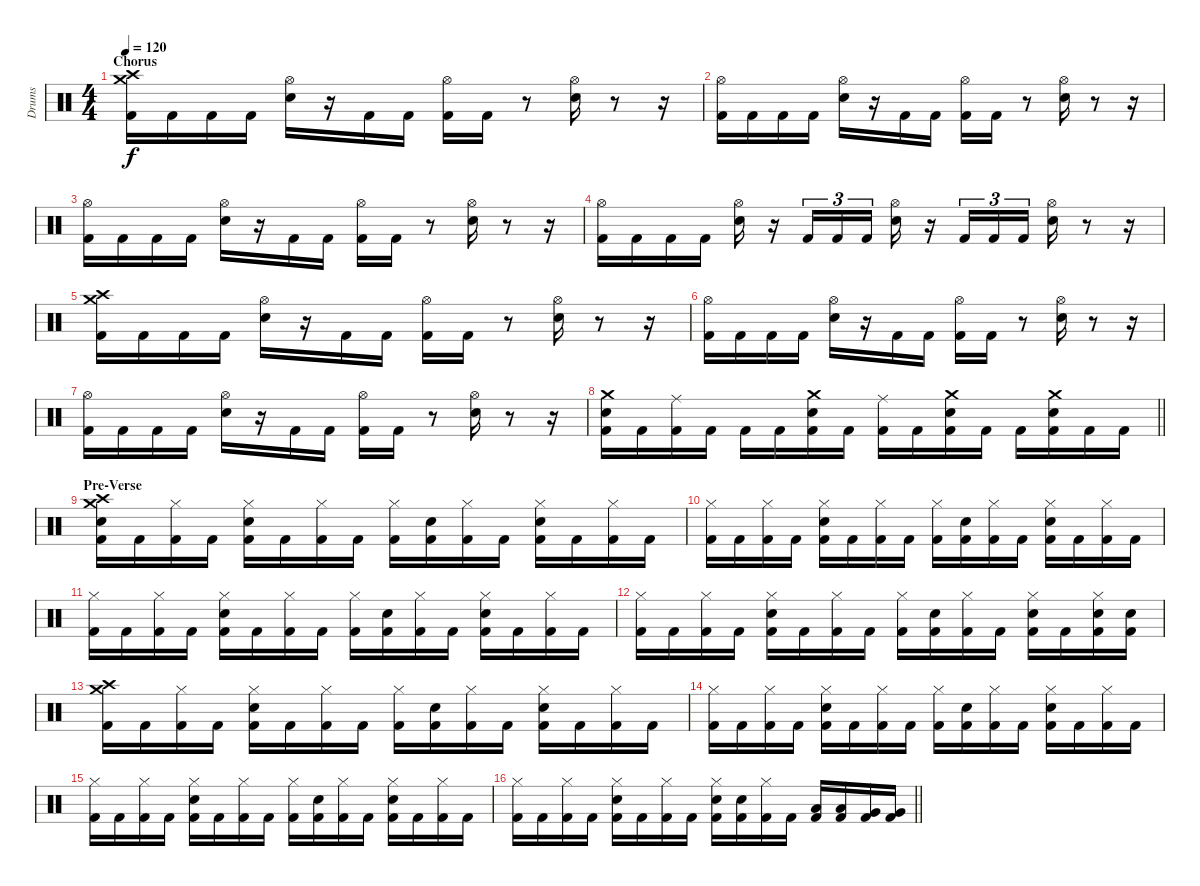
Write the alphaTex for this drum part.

\track ("Drums" "Drums") {instrument percussion}
\staff {score}
\articulation defaults
\ts (4 4)
\section ("" "Chorus")
\tempo 120
\clef neutral
\ks c
("Crash medium (hit)" "Crash high (hit)" "Kick (hit) 2").16{dy f} "Kick (hit) 2".16 "Kick (hit) 2".16 "Kick (hit) 2".16 ("Hi-Hat (open)" "Electric Snare (hit)").16 r.16 "Kick (hit) 2".16 "Kick (hit) 2".16 ("Hi-Hat (open)" "Kick (hit) 2").16 "Kick (hit) 2".16 r.8 ("Hi-Hat (open)" "Electric Snare (hit)").16 r.8 r.16 |
("Hi-Hat (open)" "Kick (hit) 2").16 "Kick (hit) 2".16 "Kick (hit) 2".16 "Kick (hit) 2".16 ("Hi-Hat (open)" "Electric Snare (hit)").16 r.16 "Kick (hit) 2".16 "Kick (hit) 2".16 ("Hi-Hat (open)" "Kick (hit) 2").16 "Kick (hit) 2".16 r.8 ("Hi-Hat (open)" "Electric Snare (hit)").16 r.8 r.16 |
("Hi-Hat (open)" "Kick (hit) 2").16 "Kick (hit) 2".16 "Kick (hit) 2".16 "Kick (hit) 2".16 ("Hi-Hat (open)" "Electric Snare (hit)").16 r.16 "Kick (hit) 2".16 "Kick (hit) 2".16 ("Hi-Hat (open)" "Kick (hit) 2").16 "Kick (hit) 2".16 r.8 ("Hi-Hat (open)" "Electric Snare (hit)").16 r.8 r.16 |
("Hi-Hat (open)" "Kick (hit) 2").16 "Kick (hit) 2".16 "Kick (hit) 2".16 "Kick (hit) 2".16 ("Hi-Hat (open)" "Electric Snare (hit)").16 r.16 "Kick (hit) 2".16{tu (3 2)} "Kick (hit) 2".16{tu (3 2)} "Kick (hit) 2".16{tu (3 2)} ("Hi-Hat (open)" "Electric Snare (hit)").16 r.16 "Kick (hit) 2".16{tu (3 2)} "Kick (hit) 2".16{tu (3 2)} "Kick (hit) 2".16{tu (3 2)} ("Hi-Hat (open)" "Electric Snare (hit)").16 r.8 r.16 |
("Crash medium (hit)" "Crash high (hit)" "Kick (hit) 2").16 "Kick (hit) 2".16 "Kick (hit) 2".16 "Kick (hit) 2".16 ("Hi-Hat (open)" "Electric Snare (hit)").16 r.16 "Kick (hit) 2".16 "Kick (hit) 2".16 ("Hi-Hat (open)" "Kick (hit) 2").16 "Kick (hit) 2".16 r.8 ("Hi-Hat (open)" "Electric Snare (hit)").16 r.8 r.16 |
("Hi-Hat (open)" "Kick (hit) 2").16 "Kick (hit) 2".16 "Kick (hit) 2".16 "Kick (hit) 2".16 ("Hi-Hat (open)" "Electric Snare (hit)").16 r.16 "Kick (hit) 2".16 "Kick (hit) 2".16 ("Hi-Hat (open)" "Kick (hit) 2").16 "Kick (hit) 2".16 r.8 ("Hi-Hat (open)" "Electric Snare (hit)").16 r.8 r.16 |
("Hi-Hat (open)" "Kick (hit) 2").16 "Kick (hit) 2".16 "Kick (hit) 2".16 "Kick (hit) 2".16 ("Hi-Hat (open)" "Electric Snare (hit)").16 r.16 "Kick (hit) 2".16 "Kick (hit) 2".16 ("Hi-Hat (open)" "Kick (hit) 2").16 "Kick (hit) 2".16 r.8 ("Hi-Hat (open)" "Electric Snare (hit)").16 r.8 r.16 |
\barLineRight lightlight
("Crash medium (hit)" "Electric Snare (hit)" "Kick (hit) 2").16 "Kick (hit) 2".16 ("Ride (middle)" "Kick (hit) 2").16 "Kick (hit) 2".16 "Kick (hit) 2".16 "Kick (hit) 2".16 ("Crash medium (hit)" "Electric Snare (hit)" "Kick (hit) 2").16 "Kick (hit) 2".16 ("Ride (middle)" "Kick (hit) 2").16 "Kick (hit) 2".16 ("Crash medium (hit)" "Electric Snare (hit)" "Kick (hit) 2").16 "Kick (hit) 2".16 "Kick (hit) 2".16 ("Crash medium (hit)" "Electric Snare (hit)" "Kick (hit) 2").16 "Kick (hit) 2".16 "Kick (hit) 2".16 |
\section ("" "Pre-Verse")
("Crash medium (hit)" "Crash high (hit)" "Electric Snare (hit)" "Kick (hit) 2").16 "Kick (hit) 2".16 ("Hi-Hat (closed)" "Kick (hit) 2").16 "Kick (hit) 2".16 ("Hi-Hat (closed)" "Electric Snare (hit)" "Kick (hit) 2").16 "Kick (hit) 2".16 ("Hi-Hat (closed)" "Kick (hit) 2").16 "Kick (hit) 2".16 ("Hi-Hat (closed)" "Kick (hit) 2").16 ("Electric Snare (hit)" "Kick (hit) 2").16 ("Hi-Hat (closed)" "Kick (hit) 2").16 "Kick (hit) 2".16 ("Hi-Hat (closed)" "Electric Snare (hit)" "Kick (hit) 2").16 "Kick (hit) 2".16 ("Hi-Hat (closed)" "Kick (hit) 2").16 "Kick (hit) 2".16 |
("Hi-Hat (closed)" "Kick (hit) 2").16 "Kick (hit) 2".16 ("Hi-Hat (closed)" "Kick (hit) 2").16 "Kick (hit) 2".16 ("Hi-Hat (closed)" "Electric Snare (hit)" "Kick (hit) 2").16 "Kick (hit) 2".16 ("Hi-Hat (closed)" "Kick (hit) 2").16 "Kick (hit) 2".16 ("Hi-Hat (closed)" "Kick (hit) 2").16 ("Electric Snare (hit)" "Kick (hit) 2").16 ("Hi-Hat (closed)" "Kick (hit) 2").16 "Kick (hit) 2".16 ("Hi-Hat (closed)" "Electric Snare (hit)" "Kick (hit) 2").16 "Kick (hit) 2".16 ("Hi-Hat (closed)" "Kick (hit) 2").16 "Kick (hit) 2".16 |
("Hi-Hat (closed)" "Kick (hit) 2").16 "Kick (hit) 2".16 ("Hi-Hat (closed)" "Kick (hit) 2").16 "Kick (hit) 2".16 ("Hi-Hat (closed)" "Electric Snare (hit)" "Kick (hit) 2").16 "Kick (hit) 2".16 ("Hi-Hat (closed)" "Kick (hit) 2").16 "Kick (hit) 2".16 ("Hi-Hat (closed)" "Kick (hit) 2").16 ("Electric Snare (hit)" "Kick (hit) 2").16 ("Hi-Hat (closed)" "Kick (hit) 2").16 "Kick (hit) 2".16 ("Hi-Hat (closed)" "Electric Snare (hit)" "Kick (hit) 2").16 "Kick (hit) 2".16 ("Hi-Hat (closed)" "Kick (hit) 2").16 "Kick (hit) 2".16 |
("Hi-Hat (closed)" "Kick (hit) 2").16 "Kick (hit) 2".16 ("Hi-Hat (closed)" "Kick (hit) 2").16 "Kick (hit) 2".16 ("Hi-Hat (closed)" "Electric Snare (hit)" "Kick (hit) 2").16 "Kick (hit) 2".16 ("Hi-Hat (closed)" "Kick (hit) 2").16 "Kick (hit) 2".16 ("Hi-Hat (closed)" "Kick (hit) 2").16 ("Electric Snare (hit)" "Kick (hit) 2").16 ("Hi-Hat (closed)" "Kick (hit) 2").16 "Kick (hit) 2".16 ("Hi-Hat (closed)" "Electric Snare (hit)" "Kick (hit) 2").16 "Kick (hit) 2".16 ("Hi-Hat (closed)" "Electric Snare (hit)" "Kick (hit) 2").16 ("Electric Snare (hit)" "Kick (hit) 2").16 |
("Crash medium (hit)" "Crash high (hit)" "Kick (hit) 2").16 "Kick (hit) 2".16 ("Hi-Hat (closed)" "Kick (hit) 2").16 "Kick (hit) 2".16 ("Hi-Hat (closed)" "Electric Snare (hit)" "Kick (hit) 2").16 "Kick (hit) 2".16 ("Hi-Hat (closed)" "Kick (hit) 2").16 "Kick (hit) 2".16 ("Hi-Hat (closed)" "Kick (hit) 2").16 ("Electric Snare (hit)" "Kick (hit) 2").16 ("Hi-Hat (closed)" "Kick (hit) 2").16 "Kick (hit) 2".16 ("Hi-Hat (closed)" "Electric Snare (hit)" "Kick (hit) 2").16 "Kick (hit) 2".16 ("Hi-Hat (closed)" "Kick (hit) 2").16 "Kick (hit) 2".16 |
("Hi-Hat (closed)" "Kick (hit) 2").16 "Kick (hit) 2".16 ("Hi-Hat (closed)" "Kick (hit) 2").16 "Kick (hit) 2".16 ("Hi-Hat (closed)" "Electric Snare (hit)" "Kick (hit) 2").16 "Kick (hit) 2".16 ("Hi-Hat (closed)" "Kick (hit) 2").16 "Kick (hit) 2".16 ("Hi-Hat (closed)" "Kick (hit) 2").16 ("Electric Snare (hit)" "Kick (hit) 2").16 ("Hi-Hat (closed)" "Kick (hit) 2").16 "Kick (hit) 2".16 ("Hi-Hat (closed)" "Electric Snare (hit)" "Kick (hit) 2").16 "Kick (hit) 2".16 ("Hi-Hat (closed)" "Kick (hit) 2").16 "Kick (hit) 2".16 |
("Hi-Hat (closed)" "Kick (hit) 2").16 "Kick (hit) 2".16 ("Hi-Hat (closed)" "Kick (hit) 2").16 "Kick (hit) 2".16 ("Hi-Hat (closed)" "Electric Snare (hit)" "Kick (hit) 2").16 "Kick (hit) 2".16 ("Hi-Hat (closed)" "Kick (hit) 2").16 "Kick (hit) 2".16 ("Hi-Hat (closed)" "Kick (hit) 2").16 ("Electric Snare (hit)" "Kick (hit) 2").16 ("Hi-Hat (closed)" "Kick (hit) 2").16 "Kick (hit) 2".16 ("Hi-Hat (closed)" "Electric Snare (hit)" "Kick (hit) 2").16 "Kick (hit) 2".16 ("Hi-Hat (closed)" "Kick (hit) 2").16 "Kick (hit) 2".16 |
\barLineRight lightlight
("Hi-Hat (closed)" "Kick (hit) 2").16 "Kick (hit) 2".16 ("Hi-Hat (closed)" "Kick (hit) 2").16 "Kick (hit) 2".16 ("Hi-Hat (closed)" "Electric Snare (hit)" "Kick (hit) 2").16 "Kick (hit) 2".16 ("Hi-Hat (closed)" "Kick (hit) 2").16 "Kick (hit) 2".16 ("Hi-Hat (closed)" "Electric Snare (hit)" "Kick (hit) 2").16 ("Electric Snare (hit)" "Kick (hit) 2").16 ("Hi-Hat (closed)" "Kick (hit) 2").16 "Kick (hit) 2".16 ("Low Floor Tom (hit)" "Kick (hit) 2").16 ("Low Floor Tom (hit)" "Kick (hit) 2").16 ("Very Low Tom (hit)" "Kick (hit) 2").16 ("Very Low Tom (hit)" "Kick (hit) 2").16
